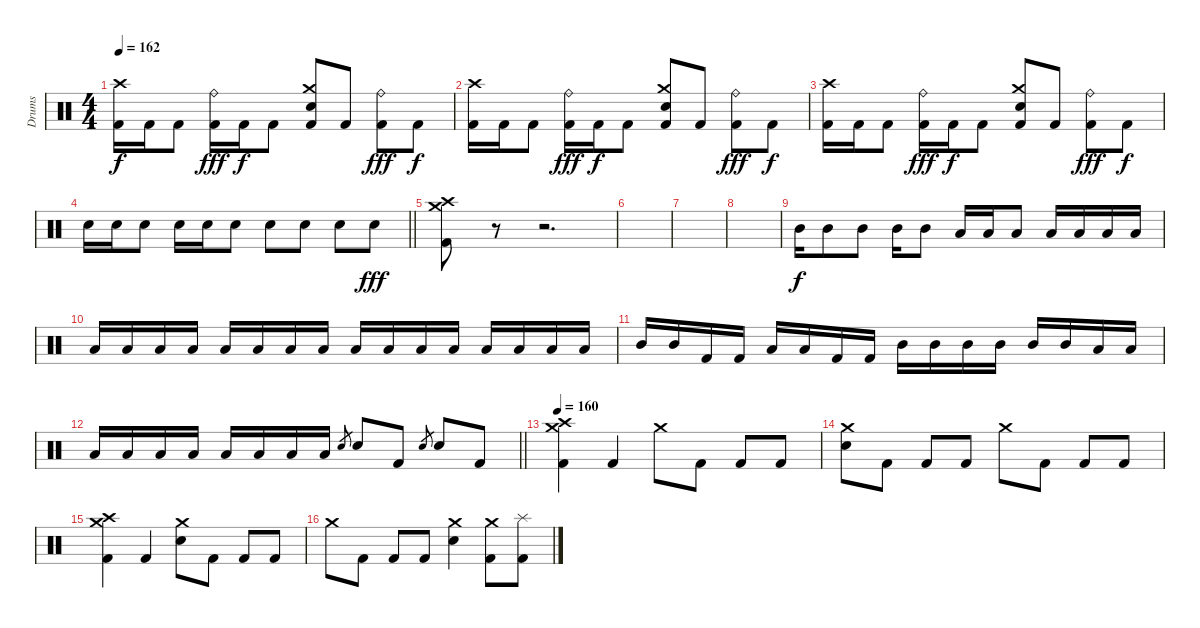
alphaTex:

\track ("Drums" "Drums") {instrument percussion}
\staff {score}
\articulation defaults
\ts (4 4)
\tempo 162
\clef neutral
\ks c
("Crash high (hit)" "Kick (hit) 2").16{dy f} "Kick (hit) 2".16 "Kick (hit) 2".8 ("Ride (bell)" "Kick (hit) 2").16{dy fff} "Kick (hit) 2".16{dy f} "Kick (hit) 2".8 ("Crash medium (hit)" "Electric Snare (hit)" "Kick (hit) 2").8 "Kick (hit) 2".8 ("Ride (bell)" "Kick (hit) 2").8{dy fff} "Kick (hit) 2".8{dy f} |
("Crash high (hit)" "Kick (hit) 2").16 "Kick (hit) 2".16 "Kick (hit) 2".8 ("Ride (bell)" "Kick (hit) 2").16{dy fff} "Kick (hit) 2".16{dy f} "Kick (hit) 2".8 ("Crash medium (hit)" "Electric Snare (hit)" "Kick (hit) 2").8 "Kick (hit) 2".8 ("Ride (bell)" "Kick (hit) 2").8{dy fff} "Kick (hit) 2".8{dy f} |
("Crash high (hit)" "Kick (hit) 2").16 "Kick (hit) 2".16 "Kick (hit) 2".8 ("Ride (bell)" "Kick (hit) 2").16{dy fff} "Kick (hit) 2".16{dy f} "Kick (hit) 2".8 ("Crash medium (hit)" "Electric Snare (hit)" "Kick (hit) 2").8 "Kick (hit) 2".8 ("Ride (bell)" "Kick (hit) 2").8{dy fff} "Kick (hit) 2".8{dy f} |
\barLineRight lightlight "Electric Snare (hit)".16 "Electric Snare (hit)".16 "Electric Snare (hit)".8 "Electric Snare (hit)".16 "Electric Snare (hit)".16 "Electric Snare (hit)".8 "Electric Snare (hit)".8 "Electric Snare (hit)".8 "Electric Snare (hit)".8 "Electric Snare (hit)".8{dy fff}
|
("Crash medium (hit)" "Crash high (hit)" "Kick (hit) 2").8 r.8{volume 0} r.2{d} |
|
|
|
"Mid Tom (hit)".16{dy f volume 13} "Mid Tom (hit)".8 "Mid Tom (hit)".8 "Mid Tom (hit)".16 "Mid Tom (hit)".8 "Low Tom (hit)".16 "Low Tom (hit)".16 "Low Tom (hit)".8 "Low Tom (hit)".16 "Low Tom (hit)".16 "Low Tom (hit)".16 "Low Tom (hit)".16 |
"Low Floor Tom (hit)".16 "Low Floor Tom (hit)".16 "Low Floor Tom (hit)".16 "Low Floor Tom (hit)".16 "Low Floor Tom (hit)".16 "Low Floor Tom (hit)".16 "Low Floor Tom (hit)".16 "Low Floor Tom (hit)".16 "Low Tom (hit)".16 "Low Tom (hit)".16 "Low Tom (hit)".16 "Low Tom (hit)".16 "Low Tom (hit)".16 "Low Tom (hit)".16 "Low Tom (hit)".16 "Low Tom (hit)".16 |
"Mid Tom (hit)".16 "Mid Tom (hit)".16 "Kick (hit) 2".16 "Kick (hit) 2".16 "Low Tom (hit)".16 "Low Tom (hit)".16 "Kick (hit) 2".16 "Kick (hit) 2".16 "Mid Tom (hit)".16 "Mid Tom (hit)".16 "Mid Tom (hit)".16 "Mid Tom (hit)".16 "Mid Tom (hit)".16 "Mid Tom (hit)".16 "Low Tom (hit)".16 "Low Tom (hit)".16 |
\barLineRight lightlight "Low Tom (hit)".16 "Low Tom (hit)".16 "Low Tom (hit)".16 "Low Tom (hit)".16 "Low Floor Tom (hit)".16 "Low Floor Tom (hit)".16 "Low Floor Tom (hit)".16 "Low Floor Tom (hit)".16 "Electric Snare (hit)".8{gr} "Electric Snare (hit)".8 "Kick (hit) 2".8 "Electric Snare (hit)".8{gr} "Electric Snare (hit)".8 "Kick (hit) 2".8
|
\tempo 160
("Crash high (hit)" "Crash medium (hit)" "Kick (hit) 2").4 "Kick (hit) 2".4 "Crash medium (hit)".8 "Kick (hit) 2".8 "Kick (hit) 2".8 "Kick (hit) 2".8 |
("Crash medium (hit)" "Electric Snare (hit)").8 "Kick (hit) 2".8 "Kick (hit) 2".8 "Kick (hit) 2".8 "Crash medium (hit)".8 "Kick (hit) 2".8 "Kick (hit) 2".8 "Kick (hit) 2".8 |
("Crash high (hit)" "Crash medium (hit)" "Kick (hit) 2").4 "Kick (hit) 2".4 ("Crash medium (hit)" "Electric Snare (hit)").8 "Kick (hit) 2".8 "Kick (hit) 2".8 "Kick (hit) 2".8 |
"Crash medium (hit)".8 "Kick (hit) 2".8 "Kick (hit) 2".8 "Kick (hit) 2".8 ("Crash medium (hit)" "Electric Snare (hit)").4 ("Crash medium (hit)" "Kick (hit) 2").8 ("Splash (hit)" "Kick (hit) 2").8
